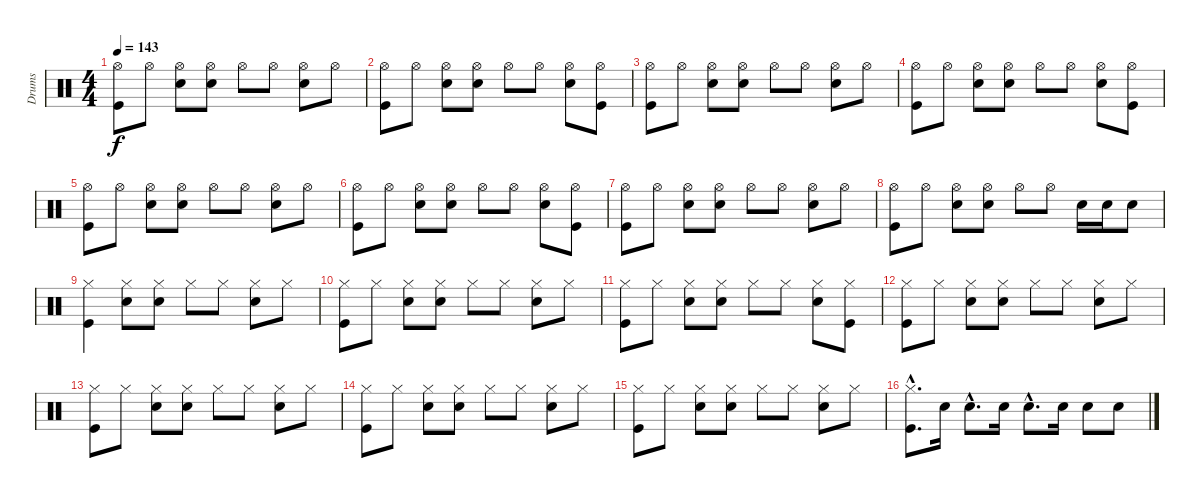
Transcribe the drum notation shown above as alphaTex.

\track ("Drums" "Drums") {instrument percussion}
\staff {score}
\articulation defaults
\ts (4 4)
\tempo 143
\clef neutral
\ks c
("Hi-Hat (open)" "Kick (hit)").8{dy f} "Hi-Hat (open)".8 ("Hi-Hat (open)" "Snare (hit) 2").8 ("Hi-Hat (open)" "Snare (hit) 2").8 "Hi-Hat (open)".8 "Hi-Hat (open)".8 ("Hi-Hat (open)" "Snare (hit) 2").8 "Hi-Hat (open)".8 |
("Kick (hit)" "Hi-Hat (open)").8 "Hi-Hat (open)".8 ("Hi-Hat (open)" "Snare (hit) 2").8 ("Hi-Hat (open)" "Snare (hit) 2").8 "Hi-Hat (open)".8 "Hi-Hat (open)".8 ("Hi-Hat (open)" "Snare (hit) 2").8 ("Hi-Hat (open)" "Kick (hit)").8 |
("Kick (hit)" "Hi-Hat (open)").8 "Hi-Hat (open)".8 ("Hi-Hat (open)" "Snare (hit) 2").8 ("Hi-Hat (open)" "Snare (hit) 2").8 "Hi-Hat (open)".8 "Hi-Hat (open)".8 ("Hi-Hat (open)" "Snare (hit) 2").8 "Hi-Hat (open)".8 |
("Kick (hit)" "Hi-Hat (open)").8 "Hi-Hat (open)".8 ("Hi-Hat (open)" "Snare (hit) 2").8 ("Hi-Hat (open)" "Snare (hit) 2").8 "Hi-Hat (open)".8 "Hi-Hat (open)".8 ("Hi-Hat (open)" "Snare (hit) 2").8 ("Hi-Hat (open)" "Kick (hit)").8 |
("Kick (hit)" "Hi-Hat (open)").8 "Hi-Hat (open)".8 ("Hi-Hat (open)" "Snare (hit) 2").8 ("Hi-Hat (open)" "Snare (hit) 2").8 "Hi-Hat (open)".8 "Hi-Hat (open)".8 ("Hi-Hat (open)" "Snare (hit) 2").8 "Hi-Hat (open)".8 |
("Kick (hit)" "Hi-Hat (open)").8 "Hi-Hat (open)".8 ("Hi-Hat (open)" "Snare (hit) 2").8 ("Hi-Hat (open)" "Snare (hit) 2").8 "Hi-Hat (open)".8 "Hi-Hat (open)".8 ("Hi-Hat (open)" "Snare (hit) 2").8 ("Hi-Hat (open)" "Kick (hit)").8 |
("Hi-Hat (open)" "Kick (hit)").8 "Hi-Hat (open)".8 ("Hi-Hat (open)" "Snare (hit) 2").8 ("Hi-Hat (open)" "Snare (hit) 2").8 "Hi-Hat (open)".8 "Hi-Hat (open)".8 ("Hi-Hat (open)" "Snare (hit) 2").8 "Hi-Hat (open)".8 |
("Hi-Hat (open)" "Kick (hit)").8 "Hi-Hat (open)".8 ("Hi-Hat (open)" "Snare (hit) 2").8 ("Hi-Hat (open)" "Snare (hit) 2").8 "Hi-Hat (open)".8 "Hi-Hat (open)".8 "Snare (hit) 2".16 "Snare (hit) 2".16 "Snare (hit) 2".8 |
("Hi-Hat (closed)" "Kick (hit)").4 ("Hi-Hat (closed)" "Snare (hit) 2").8 ("Hi-Hat (closed)" "Snare (hit) 2").8 "Hi-Hat (closed)".8 "Hi-Hat (closed)".8 ("Hi-Hat (closed)" "Snare (hit) 2").8 "Hi-Hat (closed)".8 |
("Hi-Hat (closed)" "Kick (hit)").8 "Hi-Hat (closed)".8 ("Hi-Hat (closed)" "Snare (hit) 2").8 ("Hi-Hat (closed)" "Snare (hit) 2").8 "Hi-Hat (closed)".8 "Hi-Hat (closed)".8 ("Hi-Hat (closed)" "Snare (hit) 2").8 "Hi-Hat (closed)".8 |
("Kick (hit)" "Hi-Hat (closed)").8 "Hi-Hat (closed)".8 ("Hi-Hat (closed)" "Snare (hit) 2").8 ("Hi-Hat (closed)" "Snare (hit) 2").8 "Hi-Hat (closed)".8 "Hi-Hat (closed)".8 ("Hi-Hat (closed)" "Snare (hit) 2").8 ("Hi-Hat (closed)" "Kick (hit)").8 |
("Kick (hit)" "Hi-Hat (closed)").8 "Hi-Hat (closed)".8 ("Hi-Hat (closed)" "Snare (hit) 2").8 ("Hi-Hat (closed)" "Snare (hit) 2").8 "Hi-Hat (closed)".8 "Hi-Hat (closed)".8 ("Hi-Hat (closed)" "Snare (hit) 2").8 "Hi-Hat (closed)".8 |
("Kick (hit)" "Hi-Hat (closed)").8 "Hi-Hat (closed)".8 ("Hi-Hat (closed)" "Snare (hit) 2").8 ("Hi-Hat (closed)" "Snare (hit) 2").8 "Hi-Hat (closed)".8 "Hi-Hat (closed)".8 ("Hi-Hat (closed)" "Snare (hit) 2").8 "Hi-Hat (closed)".8 |
("Kick (hit)" "Hi-Hat (closed)").8 "Hi-Hat (closed)".8 ("Hi-Hat (closed)" "Snare (hit) 2").8 ("Hi-Hat (closed)" "Snare (hit) 2").8 "Hi-Hat (closed)".8 "Hi-Hat (closed)".8 ("Hi-Hat (closed)" "Snare (hit) 2").8 "Hi-Hat (closed)".8 |
("Kick (hit)" "Hi-Hat (closed)").8 "Hi-Hat (closed)".8 ("Hi-Hat (closed)" "Snare (hit) 2").8 ("Hi-Hat (closed)" "Snare (hit) 2").8 "Hi-Hat (closed)".8 "Hi-Hat (closed)".8 ("Hi-Hat (closed)" "Snare (hit) 2").8 "Hi-Hat (closed)".8 |
("Hi-Hat (closed)"{hac} "Kick (hit)").8{d} "Snare (hit) 2".16 "Snare (hit) 2"{hac}.8{d} "Snare (hit) 2".16 "Snare (hit) 2"{hac}.8{d} "Snare (hit) 2".16 "Snare (hit) 2".8 "Snare (hit) 2".8
